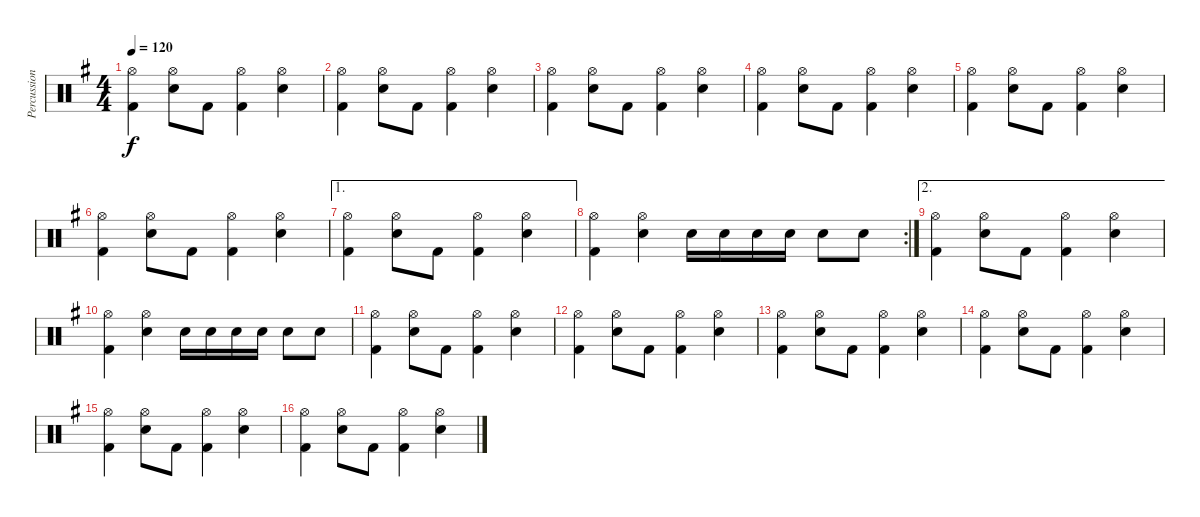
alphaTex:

\track ("Percussion" "Percussion") {instrument percussion}
\staff {score}
\articulation defaults
\ts (4 4)
\tempo 120
\clef neutral
\ks g
("Hi-Hat (open)" "Kick (hit) 2").4{dy f} ("Hi-Hat (open)" "Snare (hit) 2").8 "Kick (hit) 2".8 ("Hi-Hat (open)" "Kick (hit) 2").4 ("Hi-Hat (open)" "Snare (hit) 2").4 |
("Hi-Hat (open)" "Kick (hit) 2").4 ("Hi-Hat (open)" "Snare (hit) 2").8 "Kick (hit) 2".8 ("Hi-Hat (open)" "Kick (hit) 2").4 ("Hi-Hat (open)" "Snare (hit) 2").4 |
("Hi-Hat (open)" "Kick (hit) 2").4 ("Hi-Hat (open)" "Snare (hit) 2").8 "Kick (hit) 2".8 ("Hi-Hat (open)" "Kick (hit) 2").4 ("Hi-Hat (open)" "Snare (hit) 2").4 |
("Hi-Hat (open)" "Kick (hit) 2").4 ("Hi-Hat (open)" "Snare (hit) 2").8 "Kick (hit) 2".8 ("Hi-Hat (open)" "Kick (hit) 2").4 ("Hi-Hat (open)" "Snare (hit) 2").4 |
("Hi-Hat (open)" "Kick (hit) 2").4 ("Hi-Hat (open)" "Snare (hit) 2").8 "Kick (hit) 2".8 ("Hi-Hat (open)" "Kick (hit) 2").4 ("Hi-Hat (open)" "Snare (hit) 2").4 |
("Hi-Hat (open)" "Kick (hit) 2").4 ("Hi-Hat (open)" "Snare (hit) 2").8 "Kick (hit) 2".8 ("Hi-Hat (open)" "Kick (hit) 2").4 ("Hi-Hat (open)" "Snare (hit) 2").4 |
\ae 1
("Hi-Hat (open)" "Kick (hit) 2").4 ("Hi-Hat (open)" "Snare (hit) 2").8 "Kick (hit) 2".8 ("Hi-Hat (open)" "Kick (hit) 2").4 ("Hi-Hat (open)" "Snare (hit) 2").4 |
\rc 2
("Hi-Hat (open)" "Kick (hit) 2").4 ("Hi-Hat (open)" "Snare (hit) 2").4 "Snare (hit) 2".16 "Snare (hit) 2".16 "Snare (hit) 2".16 "Snare (hit) 2".16 "Snare (hit) 2".8 "Snare (hit) 2".8 |
\ae 2
("Hi-Hat (open)" "Kick (hit) 2").4 ("Hi-Hat (open)" "Snare (hit) 2").8 "Kick (hit) 2".8 ("Hi-Hat (open)" "Kick (hit) 2").4 ("Hi-Hat (open)" "Snare (hit) 2").4 |
("Hi-Hat (open)" "Kick (hit) 2").4 ("Hi-Hat (open)" "Snare (hit) 2").4 "Snare (hit) 2".16 "Snare (hit) 2".16 "Snare (hit) 2".16 "Snare (hit) 2".16 "Snare (hit) 2".8 "Snare (hit) 2".8 |
("Hi-Hat (open)" "Kick (hit) 2").4 ("Hi-Hat (open)" "Snare (hit) 2").8 "Kick (hit) 2".8 ("Hi-Hat (open)" "Kick (hit) 2").4 ("Hi-Hat (open)" "Snare (hit) 2").4 |
("Hi-Hat (open)" "Kick (hit) 2").4 ("Hi-Hat (open)" "Snare (hit) 2").8 "Kick (hit) 2".8 ("Hi-Hat (open)" "Kick (hit) 2").4 ("Hi-Hat (open)" "Snare (hit) 2").4 |
("Hi-Hat (open)" "Kick (hit) 2").4 ("Hi-Hat (open)" "Snare (hit) 2").8 "Kick (hit) 2".8 ("Hi-Hat (open)" "Kick (hit) 2").4 ("Hi-Hat (open)" "Snare (hit) 2").4 |
("Hi-Hat (open)" "Kick (hit) 2").4 ("Hi-Hat (open)" "Snare (hit) 2").8 "Kick (hit) 2".8 ("Hi-Hat (open)" "Kick (hit) 2").4 ("Hi-Hat (open)" "Snare (hit) 2").4 |
("Hi-Hat (open)" "Kick (hit) 2").4 ("Hi-Hat (open)" "Snare (hit) 2").8 "Kick (hit) 2".8 ("Hi-Hat (open)" "Kick (hit) 2").4 ("Hi-Hat (open)" "Snare (hit) 2").4 |
("Hi-Hat (open)" "Kick (hit) 2").4 ("Hi-Hat (open)" "Snare (hit) 2").8 "Kick (hit) 2".8 ("Hi-Hat (open)" "Kick (hit) 2").4 ("Hi-Hat (open)" "Snare (hit) 2").4
